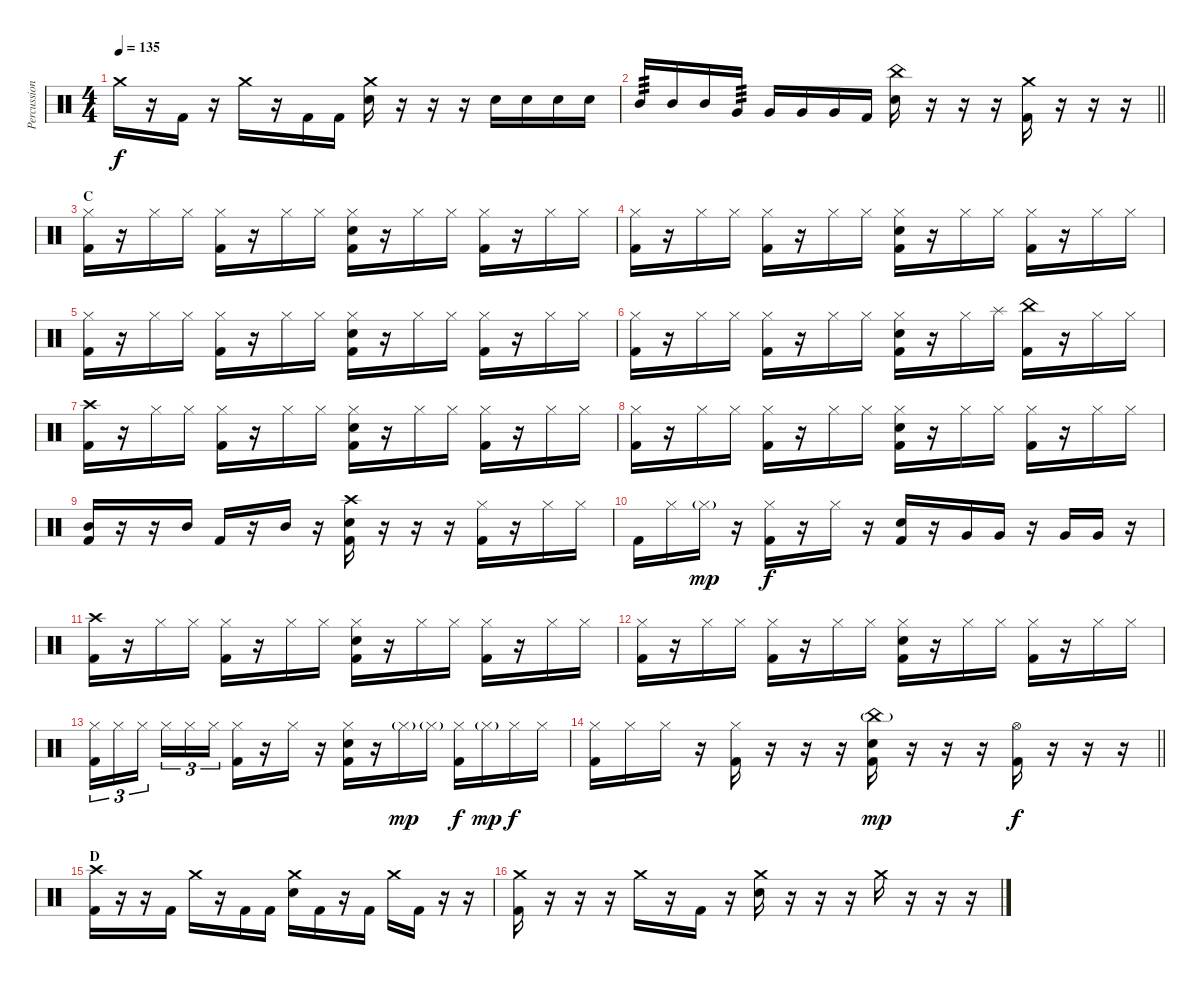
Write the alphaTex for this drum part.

\track ("Percussion" "Percussion") {instrument percussion}
\staff {score}
\articulation defaults
\ts (4 4)
\tempo 135
\clef neutral
\ks c "Crash medium (hit)".16{dy f}
r.16 "Kick (hit) 2".16 r.16 "Crash medium (hit)".16 r.16 "Kick (hit) 2".16 "Kick (hit) 2".16 ("Crash medium (hit)" "Snare (hit) 2").16 r.16 r.16 r.16 "Snare (hit) 2".16 "Snare (hit) 2".16 "Snare (hit) 2".16 "Snare (hit) 2".16 |
\barLineRight lightlight "Mid Tom (hit)".16{tp 3} "Mid Tom (hit)".16 "Mid Tom (hit)".16 "Very Low Tom (hit)".16{tp 3} "Very Low Tom (hit)".16 "Very Low Tom (hit)".16 "Very Low Tom (hit)".16 "Kick (hit) 2".16
("China (hit)" "Snare (hit) 2").16 r.16 r.16 r.16 ("Crash medium (hit)" "Kick (hit) 2").16 r.16 r.16 r.16 |
\section ("" "C")
("Hi-Hat (closed)" "Kick (hit) 2").16 r.16 "Hi-Hat (closed)".16 "Hi-Hat (closed)".16 ("Hi-Hat (closed)" "Kick (hit) 2").16 r.16 "Hi-Hat (closed)".16 "Hi-Hat (closed)".16 ("Hi-Hat (closed)" "Snare (hit) 2" "Kick (hit) 2").16 r.16 "Hi-Hat (closed)".16 "Hi-Hat (closed)".16 ("Hi-Hat (closed)" "Kick (hit) 2").16 r.16 "Hi-Hat (closed)".16 "Hi-Hat (closed)".16 |
("Hi-Hat (closed)" "Kick (hit) 2").16 r.16 "Hi-Hat (closed)".16 "Hi-Hat (closed)".16 ("Hi-Hat (closed)" "Kick (hit) 2").16 r.16 "Hi-Hat (closed)".16 "Hi-Hat (closed)".16 ("Hi-Hat (closed)" "Snare (hit) 2" "Kick (hit) 2").16 r.16 "Hi-Hat (closed)".16 "Hi-Hat (closed)".16 ("Hi-Hat (closed)" "Kick (hit) 2").16 r.16 "Hi-Hat (closed)".16 "Hi-Hat (closed)".16 |
("Hi-Hat (closed)" "Kick (hit) 2").16 r.16 "Hi-Hat (closed)".16 "Hi-Hat (closed)".16 ("Hi-Hat (closed)" "Kick (hit) 2").16 r.16 "Hi-Hat (closed)".16 "Hi-Hat (closed)".16 ("Hi-Hat (closed)" "Snare (hit) 2" "Kick (hit) 2").16 r.16 "Hi-Hat (closed)".16 "Hi-Hat (closed)".16 ("Hi-Hat (closed)" "Kick (hit) 2").16 r.16 "Hi-Hat (closed)".16 "Hi-Hat (closed)".16 |
("Hi-Hat (closed)" "Kick (hit) 2").16 r.16 "Hi-Hat (closed)".16 "Hi-Hat (closed)".16 ("Hi-Hat (closed)" "Kick (hit) 2").16 r.16 "Hi-Hat (closed)".16 "Hi-Hat (closed)".16 ("Hi-Hat (closed)" "Snare (hit) 2" "Kick (hit) 2").16 r.16 "Hi-Hat (closed)".16 "Splash (hit)".16 ("China (hit)" "Kick (hit) 2").16 r.16 "Hi-Hat (closed)".16 "Hi-Hat (closed)".16 |
("Crash high (hit)" "Kick (hit) 2").16 r.16 "Hi-Hat (closed)".16 "Hi-Hat (closed)".16 ("Hi-Hat (closed)" "Kick (hit) 2").16 r.16 "Hi-Hat (closed)".16 "Hi-Hat (closed)".16 ("Hi-Hat (closed)" "Snare (hit) 2" "Kick (hit) 2").16 r.16 "Hi-Hat (closed)".16 "Hi-Hat (closed)".16 ("Hi-Hat (closed)" "Kick (hit) 2").16 r.16 "Hi-Hat (closed)".16 "Hi-Hat (closed)".16 |
("Hi-Hat (closed)" "Kick (hit) 2").16 r.16 "Hi-Hat (closed)".16 "Hi-Hat (closed)".16 ("Hi-Hat (closed)" "Kick (hit) 2").16 r.16 "Hi-Hat (closed)".16 "Hi-Hat (closed)".16 ("Hi-Hat (closed)" "Snare (hit) 2" "Kick (hit) 2").16 r.16 "Hi-Hat (closed)".16 "Hi-Hat (closed)".16 ("Hi-Hat (closed)" "Kick (hit) 2").16 r.16 "Hi-Hat (closed)".16 "Hi-Hat (closed)".16 |
("Mid Tom (hit)" "Kick (hit) 2").16 r.16 r.16 "Mid Tom (hit)".16 "Kick (hit) 2".16 r.16 "Mid Tom (hit)".16 r.16 ("Crash high (hit)" "Snare (hit) 2" "Kick (hit) 2").16 r.16 r.16 r.16 ("Hi-Hat (closed)" "Kick (hit) 2").16 r.16 "Hi-Hat (closed)".16 "Hi-Hat (closed)".16 |
"Kick (hit) 2".16 "Hi-Hat (closed)".16 "Hi-Hat (closed)"{g}.16{dy mp} r.16 ("Hi-Hat (closed)" "Kick (hit) 2").16{dy f} r.16 "Hi-Hat (closed)".16 r.16 ("Snare (hit) 2" "Kick (hit) 2").16 r.16 "Very Low Tom (hit)".16 "Very Low Tom (hit)".16 r.16 "Very Low Tom (hit)".16 "Very Low Tom (hit)".16 r.16 |
("Crash high (hit)" "Kick (hit) 2").16 r.16 "Hi-Hat (closed)".16 "Hi-Hat (closed)".16 ("Hi-Hat (closed)" "Kick (hit) 2").16 r.16 "Hi-Hat (closed)".16 "Hi-Hat (closed)".16 ("Hi-Hat (closed)" "Snare (hit) 2" "Kick (hit) 2").16 r.16 "Hi-Hat (closed)".16 "Hi-Hat (closed)".16 ("Hi-Hat (closed)" "Kick (hit) 2").16 r.16 "Hi-Hat (closed)".16 "Hi-Hat (closed)".16 |
("Hi-Hat (closed)" "Kick (hit) 2").16 r.16 "Hi-Hat (closed)".16 "Hi-Hat (closed)".16 ("Hi-Hat (closed)" "Kick (hit) 2").16 r.16 "Hi-Hat (closed)".16 "Hi-Hat (closed)".16 ("Hi-Hat (closed)" "Snare (hit) 2" "Kick (hit) 2").16 r.16 "Hi-Hat (closed)".16 "Hi-Hat (closed)".16 ("Hi-Hat (closed)" "Kick (hit) 2").16 r.16 "Hi-Hat (closed)".16 "Hi-Hat (closed)".16 |
("Hi-Hat (closed)" "Kick (hit) 2").16{tu (3 2)} "Hi-Hat (closed)".16{tu (3 2)} "Hi-Hat (closed)".16{tu (3 2) beam splitsecondary} "Hi-Hat (closed)".16{tu (3 2)} "Hi-Hat (closed)".16{tu (3 2)} "Hi-Hat (closed)".16{tu (3 2)} ("Hi-Hat (closed)" "Kick (hit) 2").16 r.16 "Hi-Hat (closed)".16 r.16 ("Hi-Hat (closed)" "Snare (hit) 2" "Kick (hit) 2").16 r.16 "Hi-Hat (closed)"{g}.16{dy mp} "Hi-Hat (closed)"{g}.16 ("Hi-Hat (closed)" "Kick (hit) 2").16{dy f} "Hi-Hat (closed)"{g}.16{dy mp} "Hi-Hat (closed)".16{dy f} "Hi-Hat (closed)".16 |
\barLineRight lightlight
("Hi-Hat (closed)" "Kick (hit) 2").16 "Hi-Hat (closed)".16 "Hi-Hat (closed)".16 r.16 ("Hi-Hat (closed)" "Kick (hit) 2").16 r.16 r.16 r.16 ("China (hit)"{g} "Snare (hit) 2" "Kick (hit) 2").16{dy mp} r.16 r.16 r.16 ("Hi-Hat (open)" "Kick (hit) 2").16{dy f} r.16 r.16 r.16 |
\section ("" "D")
("Crash high (hit)" "Kick (hit) 2").16 r.16 r.16 "Kick (hit) 2".16 "Crash medium (hit)".16 r.16 "Kick (hit) 2".16 "Kick (hit) 2".16 ("Crash medium (hit)" "Snare (hit) 2").16 "Kick (hit) 2".16 r.16 "Kick (hit) 2".16 "Crash medium (hit)".16 "Kick (hit) 2".16 r.16 r.16 |
("Crash medium (hit)" "Kick (hit) 2").16 r.16 r.16 r.16 "Crash medium (hit)".16 r.16 "Kick (hit) 2".16 r.16 ("Crash medium (hit)" "Snare (hit) 2").16 r.16 r.16 r.16 "Crash medium (hit)".16 r.16 r.16 r.16
